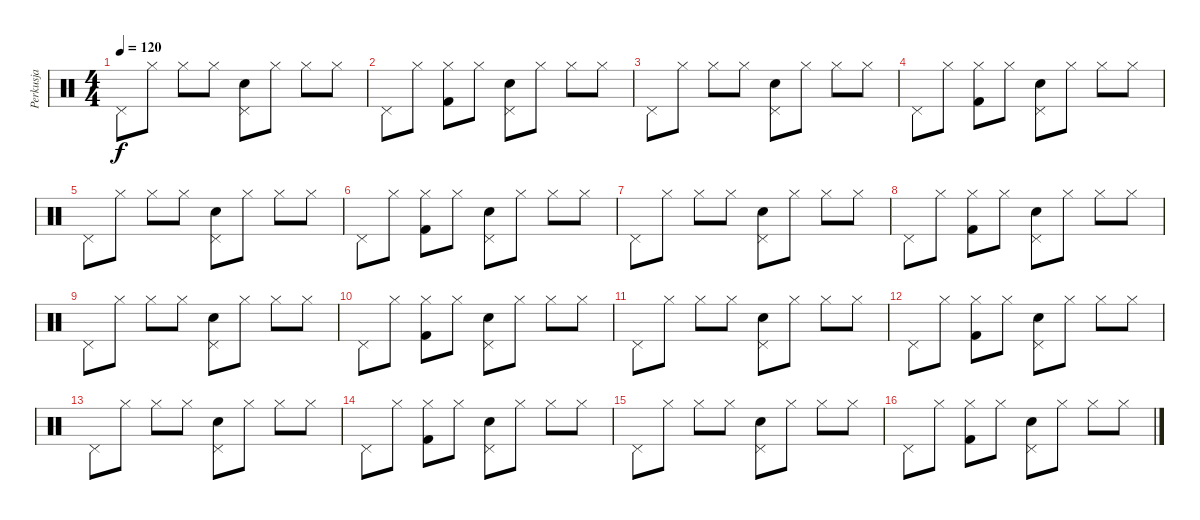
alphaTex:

\track ("Perkusja" "Perkusja") {instrument percussion}
\staff {score}
\articulation defaults
\ts (4 4)
\tempo 120
\clef neutral
\ks c "Pedal Hi-Hat (hit)".8{dy f} "Hi-Hat (closed)".8 "Hi-Hat (closed)".8 "Hi-Hat (closed)".8
("Pedal Hi-Hat (hit)" "Snare (hit) 2").8 "Hi-Hat (closed)".8 "Hi-Hat (closed)".8 "Hi-Hat (closed)".8 |
"Pedal Hi-Hat (hit)".8 "Hi-Hat (closed)".8 ("Hi-Hat (closed)" "Kick (hit) 2").8 "Hi-Hat (closed)".8 ("Pedal Hi-Hat (hit)" "Snare (hit) 2").8 "Hi-Hat (closed)".8 "Hi-Hat (closed)".8 "Hi-Hat (closed)".8 |
"Pedal Hi-Hat (hit)".8 "Hi-Hat (closed)".8 "Hi-Hat (closed)".8 "Hi-Hat (closed)".8 ("Pedal Hi-Hat (hit)" "Snare (hit) 2").8 "Hi-Hat (closed)".8 "Hi-Hat (closed)".8 "Hi-Hat (closed)".8 |
"Pedal Hi-Hat (hit)".8 "Hi-Hat (closed)".8 ("Hi-Hat (closed)" "Kick (hit) 2").8 "Hi-Hat (closed)".8 ("Pedal Hi-Hat (hit)" "Snare (hit) 2").8 "Hi-Hat (closed)".8 "Hi-Hat (closed)".8 "Hi-Hat (closed)".8 |
"Pedal Hi-Hat (hit)".8 "Hi-Hat (closed)".8 "Hi-Hat (closed)".8 "Hi-Hat (closed)".8 ("Pedal Hi-Hat (hit)" "Snare (hit) 2").8 "Hi-Hat (closed)".8 "Hi-Hat (closed)".8 "Hi-Hat (closed)".8 |
"Pedal Hi-Hat (hit)".8 "Hi-Hat (closed)".8 ("Hi-Hat (closed)" "Kick (hit) 2").8 "Hi-Hat (closed)".8 ("Pedal Hi-Hat (hit)" "Snare (hit) 2").8 "Hi-Hat (closed)".8 "Hi-Hat (closed)".8 "Hi-Hat (closed)".8 |
"Pedal Hi-Hat (hit)".8 "Hi-Hat (closed)".8 "Hi-Hat (closed)".8 "Hi-Hat (closed)".8 ("Pedal Hi-Hat (hit)" "Snare (hit) 2").8 "Hi-Hat (closed)".8 "Hi-Hat (closed)".8 "Hi-Hat (closed)".8 |
"Pedal Hi-Hat (hit)".8 "Hi-Hat (closed)".8 ("Hi-Hat (closed)" "Kick (hit) 2").8 "Hi-Hat (closed)".8 ("Pedal Hi-Hat (hit)" "Snare (hit) 2").8 "Hi-Hat (closed)".8 "Hi-Hat (closed)".8 "Hi-Hat (closed)".8 |
"Pedal Hi-Hat (hit)".8 "Hi-Hat (closed)".8 "Hi-Hat (closed)".8 "Hi-Hat (closed)".8 ("Pedal Hi-Hat (hit)" "Snare (hit) 2").8 "Hi-Hat (closed)".8 "Hi-Hat (closed)".8 "Hi-Hat (closed)".8 |
"Pedal Hi-Hat (hit)".8 "Hi-Hat (closed)".8 ("Hi-Hat (closed)" "Kick (hit) 2").8 "Hi-Hat (closed)".8 ("Pedal Hi-Hat (hit)" "Snare (hit) 2").8 "Hi-Hat (closed)".8 "Hi-Hat (closed)".8 "Hi-Hat (closed)".8 |
"Pedal Hi-Hat (hit)".8 "Hi-Hat (closed)".8 "Hi-Hat (closed)".8 "Hi-Hat (closed)".8 ("Pedal Hi-Hat (hit)" "Snare (hit) 2").8 "Hi-Hat (closed)".8 "Hi-Hat (closed)".8 "Hi-Hat (closed)".8 |
\section ("" "")
"Pedal Hi-Hat (hit)".8 "Hi-Hat (closed)".8 ("Hi-Hat (closed)" "Kick (hit) 2").8 "Hi-Hat (closed)".8 ("Pedal Hi-Hat (hit)" "Snare (hit) 2").8 "Hi-Hat (closed)".8 "Hi-Hat (closed)".8 "Hi-Hat (closed)".8 |
"Pedal Hi-Hat (hit)".8 "Hi-Hat (closed)".8 "Hi-Hat (closed)".8 "Hi-Hat (closed)".8 ("Pedal Hi-Hat (hit)" "Snare (hit) 2").8 "Hi-Hat (closed)".8 "Hi-Hat (closed)".8 "Hi-Hat (closed)".8 |
"Pedal Hi-Hat (hit)".8 "Hi-Hat (closed)".8 ("Hi-Hat (closed)" "Kick (hit) 2").8 "Hi-Hat (closed)".8 ("Pedal Hi-Hat (hit)" "Snare (hit) 2").8 "Hi-Hat (closed)".8 "Hi-Hat (closed)".8 "Hi-Hat (closed)".8 |
"Pedal Hi-Hat (hit)".8 "Hi-Hat (closed)".8 "Hi-Hat (closed)".8 "Hi-Hat (closed)".8 ("Pedal Hi-Hat (hit)" "Snare (hit) 2").8 "Hi-Hat (closed)".8 "Hi-Hat (closed)".8 "Hi-Hat (closed)".8 |
"Pedal Hi-Hat (hit)".8 "Hi-Hat (closed)".8 ("Hi-Hat (closed)" "Kick (hit) 2").8 "Hi-Hat (closed)".8 ("Pedal Hi-Hat (hit)" "Snare (hit) 2").8 "Hi-Hat (closed)".8 "Hi-Hat (closed)".8 "Hi-Hat (closed)".8
